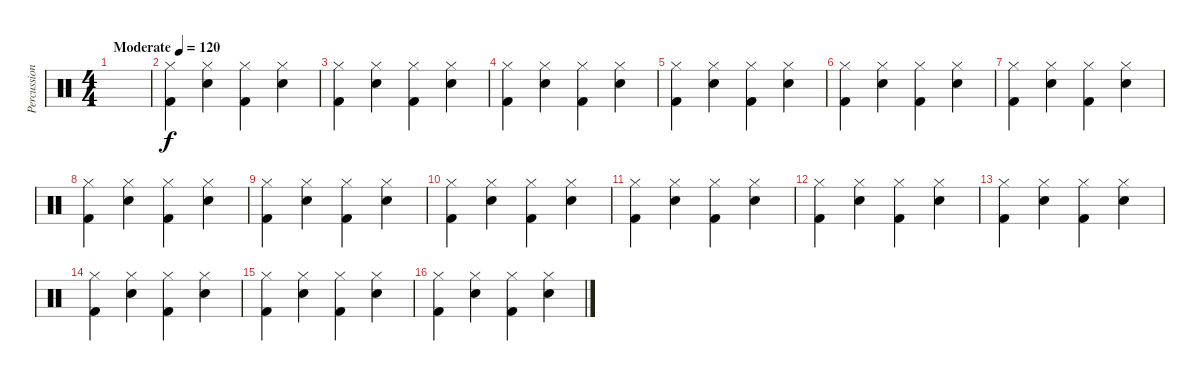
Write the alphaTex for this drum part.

\track ("Percussions" "Percussion") {instrument percussion}
\staff {score}
\articulation defaults
\ts (4 4)
\tempo (120 "Moderate")
\clef neutral
\ks c
|
("Hi-Hat (closed)" "Kick (hit) 2").4 ("Hi-Hat (closed)" "Electric Snare (hit)").4 ("Hi-Hat (closed)" "Kick (hit) 2").4 ("Hi-Hat (closed)" "Electric Snare (hit)").4 |
("Hi-Hat (closed)" "Kick (hit) 2").4 ("Hi-Hat (closed)" "Electric Snare (hit)").4 ("Hi-Hat (closed)" "Kick (hit) 2").4 ("Hi-Hat (closed)" "Electric Snare (hit)").4 |
("Hi-Hat (closed)" "Kick (hit) 2").4 ("Hi-Hat (closed)" "Electric Snare (hit)").4 ("Hi-Hat (closed)" "Kick (hit) 2").4 ("Hi-Hat (closed)" "Electric Snare (hit)").4 |
("Hi-Hat (closed)" "Kick (hit) 2").4 ("Hi-Hat (closed)" "Electric Snare (hit)").4 ("Hi-Hat (closed)" "Kick (hit) 2").4 ("Hi-Hat (closed)" "Electric Snare (hit)").4 |
("Hi-Hat (closed)" "Kick (hit) 2").4 ("Hi-Hat (closed)" "Electric Snare (hit)").4 ("Hi-Hat (closed)" "Kick (hit) 2").4 ("Hi-Hat (closed)" "Electric Snare (hit)").4 |
("Hi-Hat (closed)" "Kick (hit) 2").4 ("Hi-Hat (closed)" "Electric Snare (hit)").4 ("Hi-Hat (closed)" "Kick (hit) 2").4 ("Hi-Hat (closed)" "Electric Snare (hit)").4 |
("Hi-Hat (closed)" "Kick (hit) 2").4 ("Hi-Hat (closed)" "Electric Snare (hit)").4 ("Hi-Hat (closed)" "Kick (hit) 2").4 ("Hi-Hat (closed)" "Electric Snare (hit)").4 |
("Hi-Hat (closed)" "Kick (hit) 2").4 ("Hi-Hat (closed)" "Electric Snare (hit)").4 ("Hi-Hat (closed)" "Kick (hit) 2").4 ("Hi-Hat (closed)" "Electric Snare (hit)").4 |
("Hi-Hat (closed)" "Kick (hit) 2").4 ("Hi-Hat (closed)" "Electric Snare (hit)").4 ("Hi-Hat (closed)" "Kick (hit) 2").4 ("Hi-Hat (closed)" "Electric Snare (hit)").4 |
("Hi-Hat (closed)" "Kick (hit) 2").4 ("Hi-Hat (closed)" "Electric Snare (hit)").4 ("Hi-Hat (closed)" "Kick (hit) 2").4 ("Hi-Hat (closed)" "Electric Snare (hit)").4 |
("Hi-Hat (closed)" "Kick (hit) 2").4 ("Hi-Hat (closed)" "Electric Snare (hit)").4 ("Hi-Hat (closed)" "Kick (hit) 2").4 ("Hi-Hat (closed)" "Electric Snare (hit)").4 |
("Hi-Hat (closed)" "Kick (hit) 2").4 ("Hi-Hat (closed)" "Electric Snare (hit)").4 ("Hi-Hat (closed)" "Kick (hit) 2").4 ("Hi-Hat (closed)" "Electric Snare (hit)").4 |
("Hi-Hat (closed)" "Kick (hit) 2").4 ("Hi-Hat (closed)" "Electric Snare (hit)").4 ("Hi-Hat (closed)" "Kick (hit) 2").4 ("Hi-Hat (closed)" "Electric Snare (hit)").4 |
("Hi-Hat (closed)" "Kick (hit) 2").4 ("Hi-Hat (closed)" "Electric Snare (hit)").4 ("Hi-Hat (closed)" "Kick (hit) 2").4 ("Hi-Hat (closed)" "Electric Snare (hit)").4 |
("Hi-Hat (closed)" "Kick (hit) 2").4 ("Hi-Hat (closed)" "Electric Snare (hit)").4 ("Hi-Hat (closed)" "Kick (hit) 2").4 ("Hi-Hat (closed)" "Electric Snare (hit)").4
